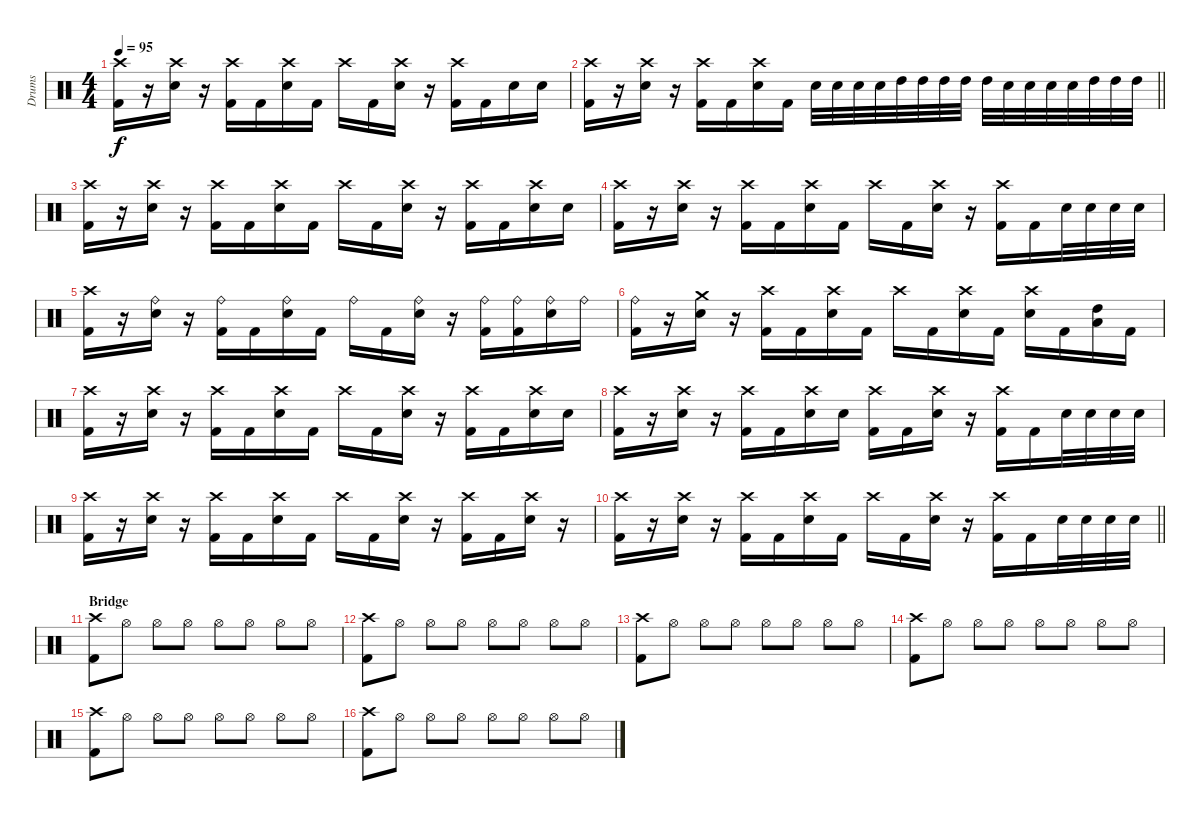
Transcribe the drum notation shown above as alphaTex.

\track ("Drums" "Drums") {instrument percussion}
\staff {score}
\articulation defaults
\ts (4 4)
\tempo 95
\clef neutral
\ks c
("Crash high (hit)" "Kick (hit) 2").16{dy f} r.16 ("Crash high (hit)" "Electric Snare (hit)").16 r.16 ("Crash high (hit)" "Kick (hit) 2").16 "Kick (hit) 2".16 ("Crash high (hit)" "Electric Snare (hit)").16 "Kick (hit) 2".16 "Crash high (hit)".16 "Kick (hit) 2".16 ("Crash high (hit)" "Electric Snare (hit)").16 r.16 ("Crash high (hit)" "Kick (hit) 2").16 "Kick (hit) 2".16 "Electric Snare (hit)".16 "Electric Snare (hit)".16 |
\barLineRight lightlight
("Crash high (hit)" "Kick (hit) 2").16 r.16 ("Crash high (hit)" "Electric Snare (hit)").16 r.16 ("Crash high (hit)" "Kick (hit) 2").16 "Kick (hit) 2".16 ("Crash high (hit)" "Electric Snare (hit)").16 "Kick (hit) 2".16 "Electric Snare (hit)".32 "Electric Snare (hit)".32 "Electric Snare (hit)".32 "Electric Snare (hit)".32 "High Tom (hit)".32 "High Tom (hit)".32 "High Tom (hit)".32 "High Tom (hit)".32 "High Tom (hit)".32 "Electric Snare (hit)".32 "Electric Snare (hit)".32 "Electric Snare (hit)".32 "Electric Snare (hit)".32 "High Tom (hit)".32 "High Tom (hit)".32 "High Tom (hit)".32 |
("Crash high (hit)" "Kick (hit) 2").16 r.16 ("Crash high (hit)" "Electric Snare (hit)").16 r.16 ("Crash high (hit)" "Kick (hit) 2").16 "Kick (hit) 2".16 ("Crash high (hit)" "Electric Snare (hit)").16 "Kick (hit) 2".16 "Crash high (hit)".16 "Kick (hit) 2".16 ("Crash high (hit)" "Electric Snare (hit)").16 r.16 ("Crash high (hit)" "Kick (hit) 2").16 "Kick (hit) 2".16 ("Crash high (hit)" "Electric Snare (hit)").16 "Electric Snare (hit)".16 |
("Crash high (hit)" "Kick (hit) 2").16 r.16 ("Crash high (hit)" "Electric Snare (hit)").16 r.16 ("Crash high (hit)" "Kick (hit) 2").16 "Kick (hit) 2".16 ("Crash high (hit)" "Electric Snare (hit)").16 "Kick (hit) 2".16 "Crash high (hit)".16 "Kick (hit) 2".16 ("Crash high (hit)" "Electric Snare (hit)").16 r.16 ("Crash high (hit)" "Kick (hit) 2").16 "Kick (hit) 2".16 "Electric Snare (hit)".32 "Electric Snare (hit)".32 "Electric Snare (hit)".32 "Electric Snare (hit)".32 |
("Crash high (hit)" "Kick (hit) 2").16 r.16 ("Ride (bell)" "Electric Snare (hit)").16 r.16 ("Ride (bell)" "Kick (hit) 2").16 "Kick (hit) 2".16 ("Ride (bell)" "Electric Snare (hit)").16 "Kick (hit) 2".16 "Ride (bell)".16 "Kick (hit) 2".16 ("Ride (bell)" "Electric Snare (hit)").16 r.16 ("Ride (bell)" "Kick (hit) 2").16 ("Ride (bell)" "Kick (hit) 2").16 ("Ride (bell)" "Electric Snare (hit)").16 "Ride (bell)".16 |
("Ride (bell)" "Kick (hit) 2").16 r.16 ("Crash medium (hit)" "Electric Snare (hit)").16 r.16 ("Crash high (hit)" "Kick (hit) 2").16 "Kick (hit) 2".16 ("Crash high (hit)" "Electric Snare (hit)").16 "Kick (hit) 2".16 "Crash high (hit)".16 "Kick (hit) 2".16 ("Crash high (hit)" "Electric Snare (hit)").16 "Kick (hit) 2".16 ("Crash high (hit)" "Electric Snare (hit)").16 "Kick (hit) 2".16 ("Low Tom (hit)" "High Tom (hit)").16 "Kick (hit) 2".16 |
("Crash high (hit)" "Kick (hit) 2").16 r.16 ("Crash high (hit)" "Electric Snare (hit)").16 r.16 ("Crash high (hit)" "Kick (hit) 2").16 "Kick (hit) 2".16 ("Crash high (hit)" "Electric Snare (hit)").16 "Kick (hit) 2".16 "Crash high (hit)".16 "Kick (hit) 2".16 ("Crash high (hit)" "Electric Snare (hit)").16 r.16 ("Crash high (hit)" "Kick (hit) 2").16 "Kick (hit) 2".16 ("Crash high (hit)" "Electric Snare (hit)").16 "Electric Snare (hit)".16 |
("Crash high (hit)" "Kick (hit) 2").16 r.16 ("Crash high (hit)" "Electric Snare (hit)").16 r.16 ("Crash high (hit)" "Kick (hit) 2").16 "Kick (hit) 2".16 ("Crash high (hit)" "Electric Snare (hit)").16 "Electric Snare (hit)".16 ("Crash high (hit)" "Kick (hit) 2").16 "Kick (hit) 2".16 ("Crash high (hit)" "Electric Snare (hit)").16 r.16 ("Crash high (hit)" "Kick (hit) 2").16 "Kick (hit) 2".16 "Electric Snare (hit)".32 "Electric Snare (hit)".32 "Electric Snare (hit)".32 "Electric Snare (hit)".32 |
("Crash high (hit)" "Kick (hit) 2").16 r.16 ("Crash high (hit)" "Electric Snare (hit)").16 r.16 ("Crash high (hit)" "Kick (hit) 2").16 "Kick (hit) 2".16 ("Crash high (hit)" "Electric Snare (hit)").16 "Kick (hit) 2".16 "Crash high (hit)".16 "Kick (hit) 2".16 ("Crash high (hit)" "Electric Snare (hit)").16 r.16 ("Crash high (hit)" "Kick (hit) 2").16 "Kick (hit) 2".16 ("Crash high (hit)" "Electric Snare (hit)").16 r.16 |
\barLineRight lightlight
("Crash high (hit)" "Kick (hit) 2").16 r.16 ("Crash high (hit)" "Electric Snare (hit)").16 r.16 ("Crash high (hit)" "Kick (hit) 2").16 "Kick (hit) 2".16 ("Crash high (hit)" "Electric Snare (hit)").16 "Kick (hit) 2".16 "Crash high (hit)".16 "Kick (hit) 2".16 ("Crash high (hit)" "Electric Snare (hit)").16 r.16 ("Crash high (hit)" "Kick (hit) 2").16 "Kick (hit) 2".16 "Electric Snare (hit)".32 "Electric Snare (hit)".32 "Electric Snare (hit)".32 "Electric Snare (hit)".32 |
\section ("" "Bridge")
("Crash high (hit)" "Kick (hit) 2").8 "Hi-Hat (open)".8 "Hi-Hat (open)".8 "Hi-Hat (open)".8 "Hi-Hat (open)".8 "Hi-Hat (open)".8 "Hi-Hat (open)".8 "Hi-Hat (open)".8 |
("Crash high (hit)" "Kick (hit) 2").8 "Hi-Hat (open)".8 "Hi-Hat (open)".8 "Hi-Hat (open)".8 "Hi-Hat (open)".8 "Hi-Hat (open)".8 "Hi-Hat (open)".8 "Hi-Hat (open)".8 |
("Crash high (hit)" "Kick (hit) 2").8 "Hi-Hat (open)".8 "Hi-Hat (open)".8 "Hi-Hat (open)".8 "Hi-Hat (open)".8 "Hi-Hat (open)".8 "Hi-Hat (open)".8 "Hi-Hat (open)".8 |
("Crash high (hit)" "Kick (hit) 2").8 "Hi-Hat (open)".8 "Hi-Hat (open)".8 "Hi-Hat (open)".8 "Hi-Hat (open)".8 "Hi-Hat (open)".8 "Hi-Hat (open)".8 "Hi-Hat (open)".8 |
("Crash high (hit)" "Kick (hit) 2").8 "Hi-Hat (open)".8 "Hi-Hat (open)".8 "Hi-Hat (open)".8 "Hi-Hat (open)".8 "Hi-Hat (open)".8 "Hi-Hat (open)".8 "Hi-Hat (open)".8 |
("Crash high (hit)" "Kick (hit) 2").8 "Hi-Hat (open)".8 "Hi-Hat (open)".8 "Hi-Hat (open)".8 "Hi-Hat (open)".8 "Hi-Hat (open)".8 "Hi-Hat (open)".8 "Hi-Hat (open)".8
